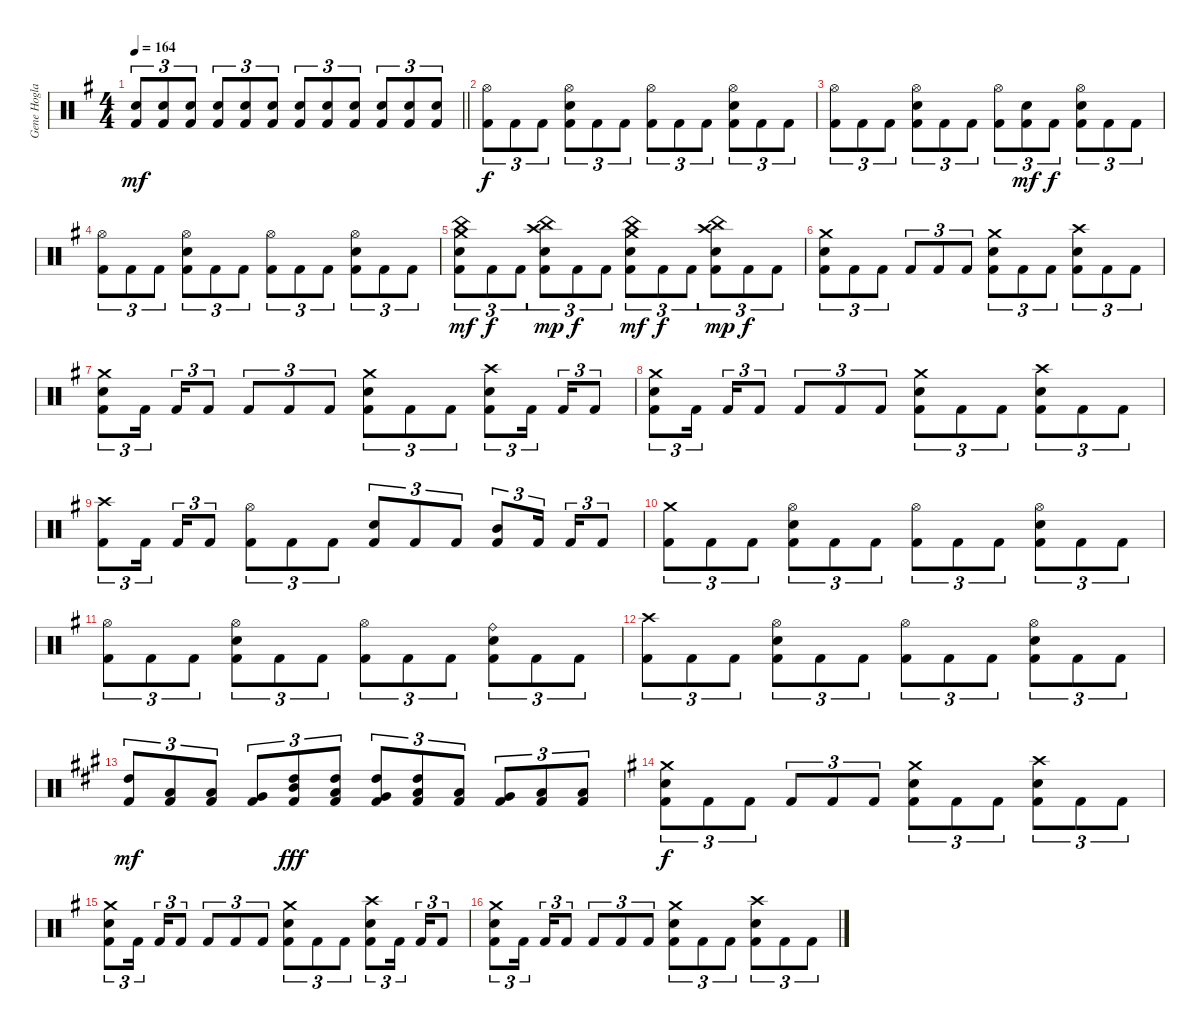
\track ("Gene Hoglan" "Gene Hogla") {instrument percussion}
\staff {score}
\articulation defaults
\ts (4 4)
\tempo 164
\clef neutral
\barLineRight lightlight
\ks g
("Electric Snare (hit)" "Kick (hit) 2").8{tu (3 2) dy mf} ("Electric Snare (hit)" "Kick (hit) 2").8{tu (3 2)} ("Electric Snare (hit)" "Kick (hit) 2").8{tu (3 2)} ("Electric Snare (hit)" "Kick (hit) 2").8{tu (3 2)} ("Electric Snare (hit)" "Kick (hit) 2").8{tu (3 2)} ("Electric Snare (hit)" "Kick (hit) 2").8{tu (3 2)} ("Electric Snare (hit)" "Kick (hit) 2").8{tu (3 2)} ("Electric Snare (hit)" "Kick (hit) 2").8{tu (3 2)} ("Electric Snare (hit)" "Kick (hit) 2").8{tu (3 2)} ("Electric Snare (hit)" "Kick (hit) 2").8{tu (3 2)} ("Electric Snare (hit)" "Kick (hit) 2").8{tu (3 2)} ("Electric Snare (hit)" "Kick (hit) 2").8{tu (3 2)} |
("Hi-Hat (open)" "Kick (hit) 2").8{tu (3 2) dy f} "Kick (hit) 2".8{tu (3 2)} "Kick (hit) 2".8{tu (3 2)} ("Hi-Hat (open)" "Electric Snare (hit)" "Kick (hit) 2").8{tu (3 2)} "Kick (hit) 2".8{tu (3 2)} "Kick (hit) 2".8{tu (3 2)} ("Hi-Hat (open)" "Kick (hit) 2").8{tu (3 2)} "Kick (hit) 2".8{tu (3 2)} "Kick (hit) 2".8{tu (3 2)} ("Hi-Hat (open)" "Electric Snare (hit)" "Kick (hit) 2").8{tu (3 2)} "Kick (hit) 2".8{tu (3 2)} "Kick (hit) 2".8{tu (3 2)} |
("Hi-Hat (open)" "Kick (hit) 2").8{tu (3 2)} "Kick (hit) 2".8{tu (3 2)} "Kick (hit) 2".8{tu (3 2)} ("Hi-Hat (open)" "Electric Snare (hit)" "Kick (hit) 2").8{tu (3 2)} "Kick (hit) 2".8{tu (3 2)} "Kick (hit) 2".8{tu (3 2)} ("Hi-Hat (open)" "Kick (hit) 2").8{tu (3 2)} ("Electric Snare (hit)" "Kick (hit) 2").8{tu (3 2) dy mf} "Kick (hit) 2".8{tu (3 2) dy f} ("Hi-Hat (open)" "Electric Snare (hit)" "Kick (hit) 2").8{tu (3 2)} "Kick (hit) 2".8{tu (3 2)} "Kick (hit) 2".8{tu (3 2)} |
("Hi-Hat (open)" "Kick (hit) 2").8{tu (3 2)} "Kick (hit) 2".8{tu (3 2)} "Kick (hit) 2".8{tu (3 2)} ("Hi-Hat (open)" "Electric Snare (hit)" "Kick (hit) 2").8{tu (3 2)} "Kick (hit) 2".8{tu (3 2)} "Kick (hit) 2".8{tu (3 2)} ("Hi-Hat (open)" "Kick (hit) 2").8{tu (3 2)} "Kick (hit) 2".8{tu (3 2)} "Kick (hit) 2".8{tu (3 2)} ("Hi-Hat (open)" "Electric Snare (hit)" "Kick (hit) 2").8{tu (3 2)} "Kick (hit) 2".8{tu (3 2)} "Kick (hit) 2".8{tu (3 2)} |
("Crash medium (hit)" "China (hit)" "Electric Snare (hit)" "Kick (hit) 2").8{tu (3 2) dy mf} "Kick (hit) 2".8{tu (3 2) dy f} "Kick (hit) 2".8{tu (3 2)} ("Crash high (hit)" "China (hit)" "Electric Snare (hit)" "Kick (hit) 2").8{tu (3 2) dy mp} "Kick (hit) 2".8{tu (3 2) dy f} "Kick (hit) 2".8{tu (3 2)} ("Crash medium (hit)" "China (hit)" "Electric Snare (hit)" "Kick (hit) 2").8{tu (3 2) dy mf} "Kick (hit) 2".8{tu (3 2) dy f} "Kick (hit) 2".8{tu (3 2)} ("Crash high (hit)" "China (hit)" "Electric Snare (hit)" "Kick (hit) 2").8{tu (3 2) dy mp} "Kick (hit) 2".8{tu (3 2) dy f} "Kick (hit) 2".8{tu (3 2)} |
("Crash medium (hit)" "Electric Snare (hit)" "Kick (hit) 2").8{tu (3 2)} "Kick (hit) 2".8{tu (3 2)} "Kick (hit) 2".8{tu (3 2)} "Kick (hit) 2".8{tu (3 2)} "Kick (hit) 2".8{tu (3 2)} "Kick (hit) 2".8{tu (3 2)} ("Crash medium (hit)" "Electric Snare (hit)" "Kick (hit) 2").8{tu (3 2)} "Kick (hit) 2".8{tu (3 2)} "Kick (hit) 2".8{tu (3 2)} ("Crash high (hit)" "Electric Snare (hit)" "Kick (hit) 2").8{tu (3 2)} "Kick (hit) 2".8{tu (3 2)} "Kick (hit) 2".8{tu (3 2)} |
("Crash medium (hit)" "Electric Snare (hit)" "Kick (hit) 2").8{tu (3 2)} "Kick (hit) 2".16{tu (3 2) beam splitsecondary} "Kick (hit) 2".16{tu (3 2)} "Kick (hit) 2".8{tu (3 2)} "Kick (hit) 2".8{tu (3 2)} "Kick (hit) 2".8{tu (3 2)} "Kick (hit) 2".8{tu (3 2)} ("Crash medium (hit)" "Electric Snare (hit)" "Kick (hit) 2").8{tu (3 2)} "Kick (hit) 2".8{tu (3 2)} "Kick (hit) 2".8{tu (3 2)} ("Crash high (hit)" "Electric Snare (hit)" "Kick (hit) 2").8{tu (3 2)} "Kick (hit) 2".16{tu (3 2) beam splitsecondary} "Kick (hit) 2".16{tu (3 2)} "Kick (hit) 2".8{tu (3 2)} |
("Crash medium (hit)" "Electric Snare (hit)" "Kick (hit) 2").8{tu (3 2)} "Kick (hit) 2".16{tu (3 2) beam splitsecondary} "Kick (hit) 2".16{tu (3 2)} "Kick (hit) 2".8{tu (3 2)} "Kick (hit) 2".8{tu (3 2)} "Kick (hit) 2".8{tu (3 2)} "Kick (hit) 2".8{tu (3 2)} ("Crash medium (hit)" "Electric Snare (hit)" "Kick (hit) 2").8{tu (3 2)} "Kick (hit) 2".8{tu (3 2)} "Kick (hit) 2".8{tu (3 2)} ("Crash high (hit)" "Electric Snare (hit)" "Kick (hit) 2").8{tu (3 2)} "Kick (hit) 2".8{tu (3 2)} "Kick (hit) 2".8{tu (3 2)} |
("Crash high (hit)" "Kick (hit) 2").8{tu (3 2)} "Kick (hit) 2".16{tu (3 2) beam splitsecondary} "Kick (hit) 2".16{tu (3 2)} "Kick (hit) 2".8{tu (3 2)} ("Hi-Hat (open)" "Kick (hit) 2").8{tu (3 2)} "Kick (hit) 2".8{tu (3 2)} "Kick (hit) 2".8{tu (3 2)} ("Electric Snare (hit)" "Kick (hit) 2").8{tu (3 2)} "Kick (hit) 2".8{tu (3 2)} "Kick (hit) 2".8{tu (3 2)} ("Mid Tom (hit)" "Kick (hit) 2").8{tu (3 2)} "Kick (hit) 2".16{tu (3 2) beam splitsecondary} "Kick (hit) 2".16{tu (3 2)} "Kick (hit) 2".8{tu (3 2)} |
("Crash medium (hit)" "Kick (hit) 2").8{tu (3 2)} "Kick (hit) 2".8{tu (3 2)} "Kick (hit) 2".8{tu (3 2)} ("Hi-Hat (open)" "Electric Snare (hit)" "Kick (hit) 2").8{tu (3 2)} "Kick (hit) 2".8{tu (3 2)} "Kick (hit) 2".8{tu (3 2)} ("Hi-Hat (open)" "Kick (hit) 2").8{tu (3 2)} "Kick (hit) 2".8{tu (3 2)} "Kick (hit) 2".8{tu (3 2)} ("Hi-Hat (open)" "Electric Snare (hit)" "Kick (hit) 2").8{tu (3 2)} "Kick (hit) 2".8{tu (3 2)} "Kick (hit) 2".8{tu (3 2)} |
("Hi-Hat (open)" "Kick (hit) 2").8{tu (3 2)} "Kick (hit) 2".8{tu (3 2)} "Kick (hit) 2".8{tu (3 2)} ("Hi-Hat (open)" "Electric Snare (hit)" "Kick (hit) 2").8{tu (3 2)} "Kick (hit) 2".8{tu (3 2)} "Kick (hit) 2".8{tu (3 2)} ("Hi-Hat (open)" "Kick (hit) 2").8{tu (3 2)} "Kick (hit) 2".8{tu (3 2)} "Kick (hit) 2".8{tu (3 2)} ("Ride (bell)" "Electric Snare (hit)" "Kick (hit) 2").8{tu (3 2)} "Kick (hit) 2".8{tu (3 2)} "Kick (hit) 2".8{tu (3 2)} |
("Crash high (hit)" "Kick (hit) 2").8{tu (3 2)} "Kick (hit) 2".8{tu (3 2)} "Kick (hit) 2".8{tu (3 2)} ("Hi-Hat (open)" "Electric Snare (hit)" "Kick (hit) 2").8{tu (3 2)} "Kick (hit) 2".8{tu (3 2)} "Kick (hit) 2".8{tu (3 2)} ("Hi-Hat (open)" "Kick (hit) 2").8{tu (3 2)} "Kick (hit) 2".8{tu (3 2)} "Kick (hit) 2".8{tu (3 2)} ("Hi-Hat (open)" "Electric Snare (hit)" "Kick (hit) 2").8{tu (3 2)} "Kick (hit) 2".8{tu (3 2)} "Kick (hit) 2".8{tu (3 2)} |
\ks a
("High Tom (hit)" "Kick (hit) 2").8{tu (3 2) dy mf} ("Low Tom (hit)" "Kick (hit) 2").8{tu (3 2)} ("Low Floor Tom (hit)" "Kick (hit) 2").8{tu (3 2)} ("Very Low Tom (hit)" "Kick (hit) 2").8{tu (3 2)} ("High Tom (hit)" "Mid Tom (hit)" "Kick (hit) 2").8{tu (3 2) dy fff} ("High Tom (hit)" "Low Tom (hit)" "Kick (hit) 2").8{tu (3 2)} ("High Tom (hit)" "Very Low Tom (hit)" "Kick (hit) 2").8{tu (3 2)} ("High Tom (hit)" "Low Tom (hit)" "Kick (hit) 2").8{tu (3 2)} ("Low Tom (hit)" "Kick (hit) 2").8{tu (3 2)} ("Very Low Tom (hit)" "Kick (hit) 2").8{tu (3 2)} ("Low Floor Tom (hit)" "Kick (hit) 2").8{tu (3 2)} ("Low Floor Tom (hit)" "Kick (hit) 2").8{tu (3 2)} |
\ks g
("Crash medium (hit)" "Electric Snare (hit)" "Kick (hit) 2").8{tu (3 2) dy f} "Kick (hit) 2".8{tu (3 2)} "Kick (hit) 2".8{tu (3 2)} "Kick (hit) 2".8{tu (3 2)} "Kick (hit) 2".8{tu (3 2)} "Kick (hit) 2".8{tu (3 2)} ("Crash medium (hit)" "Electric Snare (hit)" "Kick (hit) 2").8{tu (3 2)} "Kick (hit) 2".8{tu (3 2)} "Kick (hit) 2".8{tu (3 2)} ("Crash high (hit)" "Electric Snare (hit)" "Kick (hit) 2").8{tu (3 2)} "Kick (hit) 2".8{tu (3 2)} "Kick (hit) 2".8{tu (3 2)} |
("Crash medium (hit)" "Electric Snare (hit)" "Kick (hit) 2").8{tu (3 2)} "Kick (hit) 2".16{tu (3 2) beam splitsecondary} "Kick (hit) 2".16{tu (3 2)} "Kick (hit) 2".8{tu (3 2)} "Kick (hit) 2".8{tu (3 2)} "Kick (hit) 2".8{tu (3 2)} "Kick (hit) 2".8{tu (3 2)} ("Crash medium (hit)" "Electric Snare (hit)" "Kick (hit) 2").8{tu (3 2)} "Kick (hit) 2".8{tu (3 2)} "Kick (hit) 2".8{tu (3 2)} ("Crash high (hit)" "Electric Snare (hit)" "Kick (hit) 2").8{tu (3 2)} "Kick (hit) 2".16{tu (3 2) beam splitsecondary} "Kick (hit) 2".16{tu (3 2)} "Kick (hit) 2".8{tu (3 2)} |
("Crash medium (hit)" "Electric Snare (hit)" "Kick (hit) 2").8{tu (3 2)} "Kick (hit) 2".16{tu (3 2) beam splitsecondary} "Kick (hit) 2".16{tu (3 2)} "Kick (hit) 2".8{tu (3 2)} "Kick (hit) 2".8{tu (3 2)} "Kick (hit) 2".8{tu (3 2)} "Kick (hit) 2".8{tu (3 2)} ("Crash medium (hit)" "Electric Snare (hit)" "Kick (hit) 2").8{tu (3 2)} "Kick (hit) 2".8{tu (3 2)} "Kick (hit) 2".8{tu (3 2)} ("Crash high (hit)" "Electric Snare (hit)" "Kick (hit) 2").8{tu (3 2)} "Kick (hit) 2".8{tu (3 2)} "Kick (hit) 2".8{tu (3 2)}
